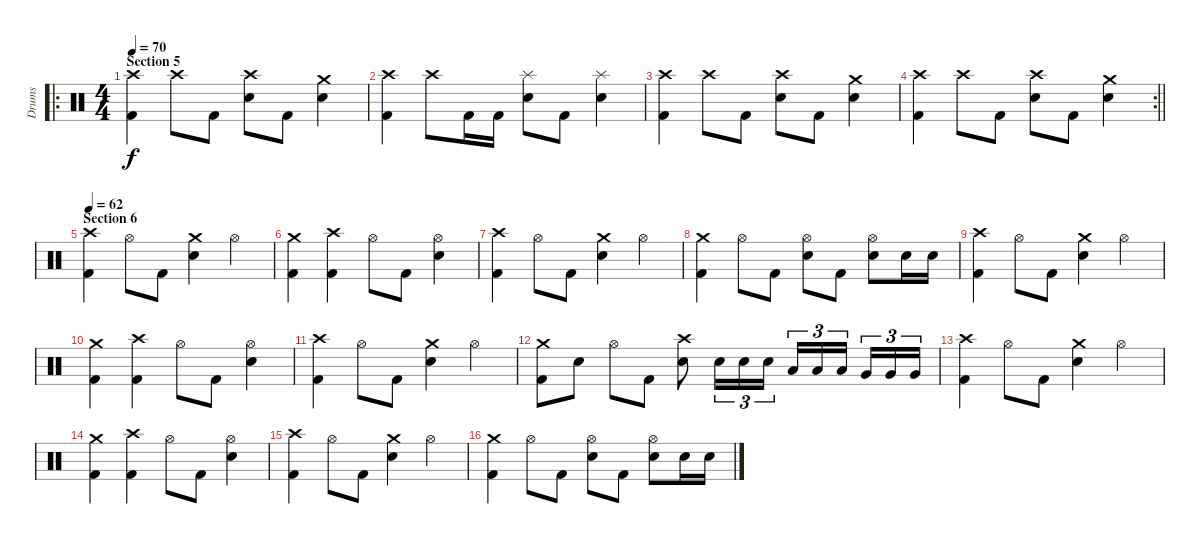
\track ("Drums" "Drums") {instrument percussion}
\staff {score}
\articulation defaults
\ro
\ts (4 4)
\section ("" "Section 5")
\tempo 70
\clef neutral
\ks c
("Crash high (hit)" "Kick (hit) 2").4{dy f} "Crash high (hit)".8 "Kick (hit) 2".8 ("Crash high (hit)" "Electric Snare (hit)").8 "Kick (hit) 2".8 ("Crash medium (hit)" "Electric Snare (hit)").4 |
("Crash high (hit)" "Kick (hit) 2").4 "Crash high (hit)".8 "Kick (hit) 2".16 "Kick (hit) 2".16 ("Splash (hit)" "Electric Snare (hit)").8 "Kick (hit) 2".8 ("Splash (hit)" "Electric Snare (hit)").4 |
("Crash high (hit)" "Kick (hit) 2").4 "Crash high (hit)".8 "Kick (hit) 2".8 ("Crash high (hit)" "Electric Snare (hit)").8 "Kick (hit) 2".8 ("Crash medium (hit)" "Electric Snare (hit)").4 |
\rc 2
\barLineRight lightlight
("Crash high (hit)" "Kick (hit) 2").4 "Crash high (hit)".8 "Kick (hit) 2".8 ("Crash high (hit)" "Electric Snare (hit)").8 "Kick (hit) 2".8 ("Crash medium (hit)" "Electric Snare (hit)").4 |
\section ("" "Section 6")
\tempo 62
("Crash high (hit)" "Kick (hit) 2").4 "Hi-Hat (open)".8 "Kick (hit) 2".8 ("Crash medium (hit)" "Electric Snare (hit)").4 "Hi-Hat (open)".4 |
("Crash medium (hit)" "Kick (hit) 2").4 ("Crash high (hit)" "Kick (hit) 2").4 "Hi-Hat (open)".8 "Kick (hit) 2".8 ("Hi-Hat (open)" "Electric Snare (hit)").4 |
("Crash high (hit)" "Kick (hit) 2").4 "Hi-Hat (open)".8 "Kick (hit) 2".8 ("Crash medium (hit)" "Electric Snare (hit)").4 "Hi-Hat (open)".4 |
("Crash medium (hit)" "Kick (hit) 2").4 "Hi-Hat (open)".8 "Kick (hit) 2".8 ("Hi-Hat (open)" "Electric Snare (hit)").8 "Kick (hit) 2".8 ("Hi-Hat (open)" "Electric Snare (hit)").8 "Electric Snare (hit)".16 "Electric Snare (hit)".16 |
("Crash high (hit)" "Kick (hit) 2").4 "Hi-Hat (open)".8 "Kick (hit) 2".8 ("Crash medium (hit)" "Electric Snare (hit)").4 "Hi-Hat (open)".4 |
("Crash medium (hit)" "Kick (hit) 2").4 ("Crash high (hit)" "Kick (hit) 2").4 "Hi-Hat (open)".8 "Kick (hit) 2".8 ("Hi-Hat (open)" "Electric Snare (hit)").4 |
("Crash high (hit)" "Kick (hit) 2").4 "Hi-Hat (open)".8 "Kick (hit) 2".8 ("Crash medium (hit)" "Electric Snare (hit)").4 "Hi-Hat (open)".4 |
("Crash medium (hit)" "Kick (hit) 2").8 "Electric Snare (hit)".8 "Hi-Hat (open)".8 "Kick (hit) 2".8 ("Crash high (hit)" "Electric Snare (hit)").8 "Electric Snare (hit)".16{tu (3 2)} "Electric Snare (hit)".16{tu (3 2)} "Electric Snare (hit)".16{tu (3 2)} "Low Tom (hit)".16{tu (3 2)} "Low Tom (hit)".16{tu (3 2)} "Low Tom (hit)".16{tu (3 2) beam splitsecondary} "Very Low Tom (hit)".16{tu (3 2)} "Very Low Tom (hit)".16{tu (3 2)} "Very Low Tom (hit)".16{tu (3 2)} |
("Crash high (hit)" "Kick (hit) 2").4 "Hi-Hat (open)".8 "Kick (hit) 2".8 ("Crash medium (hit)" "Electric Snare (hit)").4 "Hi-Hat (open)".4 |
("Crash medium (hit)" "Kick (hit) 2").4 ("Crash high (hit)" "Kick (hit) 2").4 "Hi-Hat (open)".8 "Kick (hit) 2".8 ("Hi-Hat (open)" "Electric Snare (hit)").4 |
("Crash high (hit)" "Kick (hit) 2").4 "Hi-Hat (open)".8 "Kick (hit) 2".8 ("Crash medium (hit)" "Electric Snare (hit)").4 "Hi-Hat (open)".4 |
("Crash medium (hit)" "Kick (hit) 2").4 "Hi-Hat (open)".8 "Kick (hit) 2".8 ("Hi-Hat (open)" "Electric Snare (hit)").8 "Kick (hit) 2".8 ("Hi-Hat (open)" "Electric Snare (hit)").8 "Electric Snare (hit)".16 "Electric Snare (hit)".16
